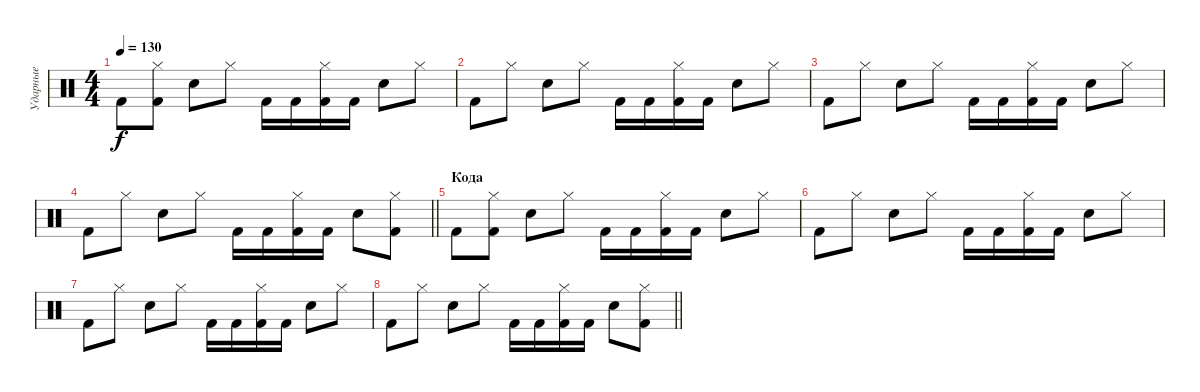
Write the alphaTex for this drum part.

\track ("Ударные" "Ударные") {instrument percussion}
\staff {score}
\articulation defaults
\ts (4 4)
\tempo 130
\clef neutral
\ks c "Kick (hit) 2".8{dy f}
("Hi-Hat (closed)" "Kick (hit) 2").8 "Electric Snare (hit)".8 "Hi-Hat (closed)".8 "Kick (hit) 2".16 "Kick (hit) 2".16 ("Hi-Hat (closed)" "Kick (hit) 2").16 "Kick (hit) 2".16 "Electric Snare (hit)".8 "Hi-Hat (closed)".8 |
"Kick (hit) 2".8 "Hi-Hat (closed)".8 "Electric Snare (hit)".8 "Hi-Hat (closed)".8 "Kick (hit) 2".16 "Kick (hit) 2".16 ("Hi-Hat (closed)" "Kick (hit) 2").16 "Kick (hit) 2".16 "Electric Snare (hit)".8 "Hi-Hat (closed)".8 |
"Kick (hit) 2".8 "Hi-Hat (closed)".8 "Electric Snare (hit)".8 "Hi-Hat (closed)".8 "Kick (hit) 2".16 "Kick (hit) 2".16 ("Hi-Hat (closed)" "Kick (hit) 2").16 "Kick (hit) 2".16 "Electric Snare (hit)".8 "Hi-Hat (closed)".8 |
\barLineRight lightlight "Kick (hit) 2".8 "Hi-Hat (closed)".8 "Electric Snare (hit)".8 "Hi-Hat (closed)".8 "Kick (hit) 2".16 "Kick (hit) 2".16
("Hi-Hat (closed)" "Kick (hit) 2").16 "Kick (hit) 2".16 "Electric Snare (hit)".8 ("Hi-Hat (closed)" "Kick (hit) 2").8 |
\section ("" "Кода")
"Kick (hit) 2".8 ("Hi-Hat (closed)" "Kick (hit) 2").8 "Electric Snare (hit)".8 "Hi-Hat (closed)".8 "Kick (hit) 2".16 "Kick (hit) 2".16 ("Hi-Hat (closed)" "Kick (hit) 2").16 "Kick (hit) 2".16 "Electric Snare (hit)".8 "Hi-Hat (closed)".8 |
"Kick (hit) 2".8 "Hi-Hat (closed)".8 "Electric Snare (hit)".8 "Hi-Hat (closed)".8 "Kick (hit) 2".16 "Kick (hit) 2".16 ("Hi-Hat (closed)" "Kick (hit) 2").16 "Kick (hit) 2".16 "Electric Snare (hit)".8 "Hi-Hat (closed)".8 |
"Kick (hit) 2".8 "Hi-Hat (closed)".8 "Electric Snare (hit)".8 "Hi-Hat (closed)".8 "Kick (hit) 2".16 "Kick (hit) 2".16 ("Hi-Hat (closed)" "Kick (hit) 2").16 "Kick (hit) 2".16 "Electric Snare (hit)".8 "Hi-Hat (closed)".8 |
\barLineRight lightlight "Kick (hit) 2".8 "Hi-Hat (closed)".8 "Electric Snare (hit)".8 "Hi-Hat (closed)".8 "Kick (hit) 2".16 "Kick (hit) 2".16
("Hi-Hat (closed)" "Kick (hit) 2").16 "Kick (hit) 2".16 "Electric Snare (hit)".8 ("Hi-Hat (closed)" "Kick (hit) 2").8
